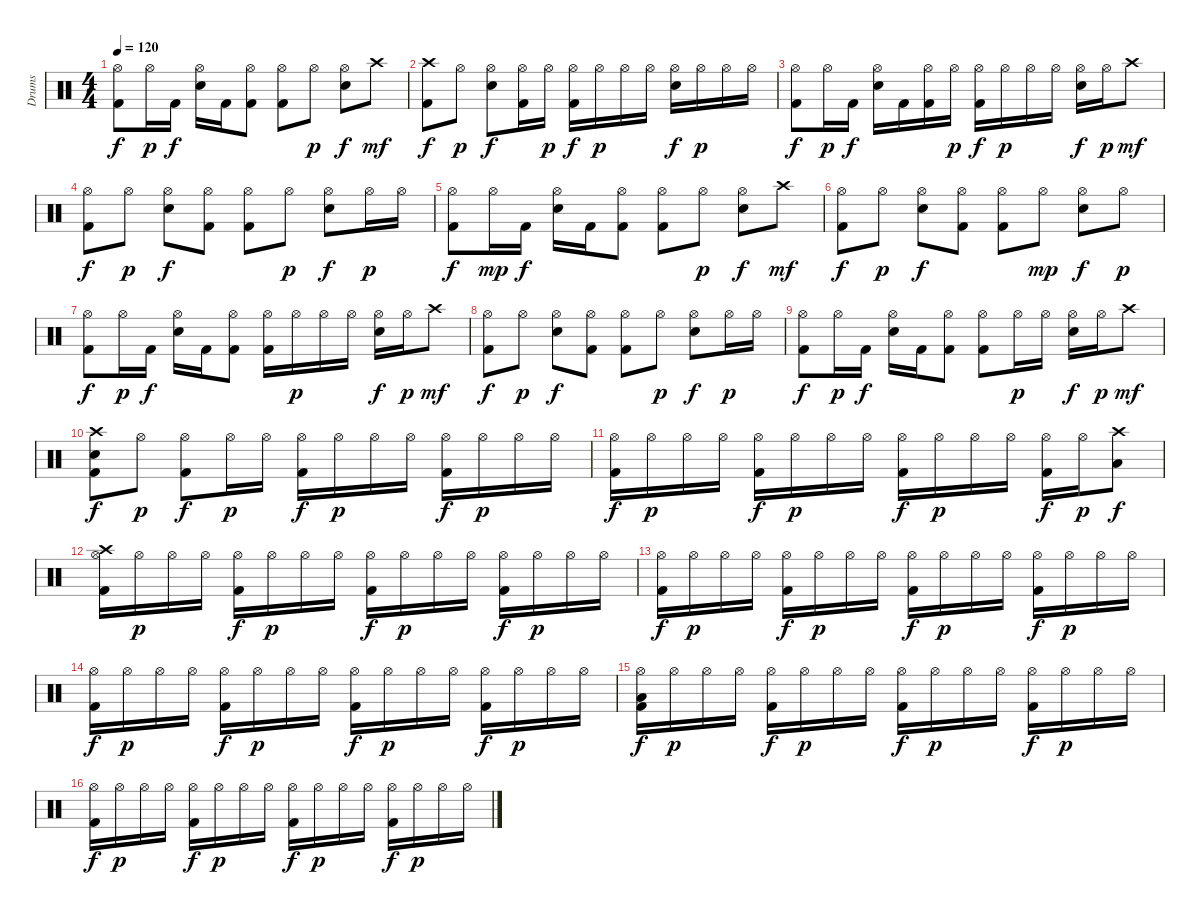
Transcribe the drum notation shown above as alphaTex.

\track ("Drums" "Drums") {instrument percussion}
\staff {score}
\articulation defaults
\ts (4 4)
\tempo 120
\clef neutral
\ks c
("Hi-Hat (open)" "Kick (hit) 2").8{dy f} "Hi-Hat (open)".16{dy p} "Kick (hit) 2".16{dy f} ("Hi-Hat (open)" "Electric Snare (hit)").16 "Kick (hit) 2".16 ("Hi-Hat (open)" "Kick (hit) 2").8 ("Hi-Hat (open)" "Kick (hit) 2").8 "Hi-Hat (open)".8{dy p} ("Hi-Hat (open)" "Electric Snare (hit)").8{dy f} "Crash high (hit)".8{dy mf} |
("Crash high (hit)" "Kick (hit) 2").8{dy f} "Hi-Hat (open)".8{dy p} ("Hi-Hat (open)" "Electric Snare (hit)").8{dy f} ("Hi-Hat (open)" "Kick (hit) 2").16 "Hi-Hat (open)".16{dy p} ("Hi-Hat (open)" "Kick (hit) 2").16{dy f} "Hi-Hat (open)".16{dy p} "Hi-Hat (open)".16 "Hi-Hat (open)".16 ("Hi-Hat (open)" "Electric Snare (hit)").16{dy f} "Hi-Hat (open)".16{dy p} "Hi-Hat (open)".16 "Hi-Hat (open)".16 |
("Hi-Hat (open)" "Kick (hit) 2").8{dy f} "Hi-Hat (open)".16{dy p} "Kick (hit) 2".16{dy f} ("Hi-Hat (open)" "Electric Snare (hit)").16 "Kick (hit) 2".16 ("Hi-Hat (open)" "Kick (hit) 2").16 "Hi-Hat (open)".16{dy p} ("Hi-Hat (open)" "Kick (hit) 2").16{dy f} "Hi-Hat (open)".16{dy p} "Hi-Hat (open)".16 "Hi-Hat (open)".16 ("Hi-Hat (open)" "Electric Snare (hit)").16{dy f} "Hi-Hat (open)".16{dy p} "Crash high (hit)".8{dy mf} |
("Hi-Hat (open)" "Kick (hit) 2").8{dy f} "Hi-Hat (open)".8{dy p} ("Hi-Hat (open)" "Electric Snare (hit)").8{dy f} ("Hi-Hat (open)" "Kick (hit) 2").8 ("Hi-Hat (open)" "Kick (hit) 2").8 "Hi-Hat (open)".8{dy p} ("Hi-Hat (open)" "Electric Snare (hit)").8{dy f} "Hi-Hat (open)".16{dy p} "Hi-Hat (open)".16 |
("Hi-Hat (open)" "Kick (hit) 2").8{dy f} "Hi-Hat (open)".16{dy mp} "Kick (hit) 2".16{dy f} ("Hi-Hat (open)" "Electric Snare (hit)").16 "Kick (hit) 2".16 ("Hi-Hat (open)" "Kick (hit) 2").8 ("Hi-Hat (open)" "Kick (hit) 2").8 "Hi-Hat (open)".8{dy p} ("Hi-Hat (open)" "Electric Snare (hit)").8{dy f} "Crash high (hit)".8{dy mf} |
("Hi-Hat (open)" "Kick (hit) 2").8{dy f} "Hi-Hat (open)".8{dy p} ("Hi-Hat (open)" "Electric Snare (hit)").8{dy f} ("Hi-Hat (open)" "Kick (hit) 2").8 ("Hi-Hat (open)" "Kick (hit) 2").8 "Hi-Hat (open)".8{dy mp} ("Hi-Hat (open)" "Electric Snare (hit)").8{dy f} "Hi-Hat (open)".8{dy p} |
("Hi-Hat (open)" "Kick (hit) 2").8{dy f} "Hi-Hat (open)".16{dy p} "Kick (hit) 2".16{dy f} ("Hi-Hat (open)" "Electric Snare (hit)").16 "Kick (hit) 2".16 ("Hi-Hat (open)" "Kick (hit) 2").8 ("Hi-Hat (open)" "Kick (hit) 2").16 "Hi-Hat (open)".16{dy p} "Hi-Hat (open)".16 "Hi-Hat (open)".16 ("Hi-Hat (open)" "Electric Snare (hit)").16{dy f} "Hi-Hat (open)".16{dy p} "Crash high (hit)".8{dy mf} |
("Hi-Hat (open)" "Kick (hit) 2").8{dy f} "Hi-Hat (open)".8{dy p} ("Hi-Hat (open)" "Electric Snare (hit)").8{dy f} ("Hi-Hat (open)" "Kick (hit) 2").8 ("Hi-Hat (open)" "Kick (hit) 2").8 "Hi-Hat (open)".8{dy p} ("Hi-Hat (open)" "Electric Snare (hit)").8{dy f} "Hi-Hat (open)".16{dy p} "Hi-Hat (open)".16 |
("Hi-Hat (open)" "Kick (hit) 2").8{dy f} "Hi-Hat (open)".16{dy p} "Kick (hit) 2".16{dy f} ("Hi-Hat (open)" "Electric Snare (hit)").16 "Kick (hit) 2".16 ("Hi-Hat (open)" "Kick (hit) 2").8 ("Hi-Hat (open)" "Kick (hit) 2").8 "Hi-Hat (open)".16{dy p} "Hi-Hat (open)".16 ("Hi-Hat (open)" "Electric Snare (hit)").16{dy f} "Hi-Hat (open)".16{dy p} "Crash high (hit)".8{dy mf} |
("Crash high (hit)" "Electric Snare (hit)" "Kick (hit) 2").8{dy f} "Hi-Hat (open)".8{dy p} ("Hi-Hat (open)" "Kick (hit) 2").8{dy f} "Hi-Hat (open)".16{dy p} "Hi-Hat (open)".16 ("Hi-Hat (open)" "Kick (hit) 2").16{dy f} "Hi-Hat (open)".16{dy p} "Hi-Hat (open)".16 "Hi-Hat (open)".16 ("Hi-Hat (open)" "Kick (hit) 2").16{dy f} "Hi-Hat (open)".16{dy p} "Hi-Hat (open)".16 "Hi-Hat (open)".16 |
("Hi-Hat (open)" "Kick (hit) 2").16{dy f} "Hi-Hat (open)".16{dy p} "Hi-Hat (open)".16 "Hi-Hat (open)".16 ("Hi-Hat (open)" "Kick (hit) 2").16{dy f} "Hi-Hat (open)".16{dy p} "Hi-Hat (open)".16 "Hi-Hat (open)".16 ("Hi-Hat (open)" "Kick (hit) 2").16{dy f} "Hi-Hat (open)".16{dy p} "Hi-Hat (open)".16 "Hi-Hat (open)".16 ("Hi-Hat (open)" "Kick (hit) 2").16{dy f} "Hi-Hat (open)".16{dy p} ("Crash high (hit)" "Low Tom (hit)").8{dy f} |
("Hi-Hat (open)" "Crash high (hit)" "Kick (hit) 2").16 "Hi-Hat (open)".16{dy p} "Hi-Hat (open)".16 "Hi-Hat (open)".16 ("Hi-Hat (open)" "Kick (hit) 2").16{dy f} "Hi-Hat (open)".16{dy p} "Hi-Hat (open)".16 "Hi-Hat (open)".16 ("Hi-Hat (open)" "Kick (hit) 2").16{dy f} "Hi-Hat (open)".16{dy p} "Hi-Hat (open)".16 "Hi-Hat (open)".16 ("Hi-Hat (open)" "Kick (hit) 2").16{dy f} "Hi-Hat (open)".16{dy p} "Hi-Hat (open)".16 "Hi-Hat (open)".16 |
("Hi-Hat (open)" "Kick (hit) 2").16{dy f} "Hi-Hat (open)".16{dy p} "Hi-Hat (open)".16 "Hi-Hat (open)".16 ("Hi-Hat (open)" "Kick (hit) 2").16{dy f} "Hi-Hat (open)".16{dy p} "Hi-Hat (open)".16 "Hi-Hat (open)".16 ("Hi-Hat (open)" "Kick (hit) 2").16{dy f} "Hi-Hat (open)".16{dy p} "Hi-Hat (open)".16 "Hi-Hat (open)".16 ("Hi-Hat (open)" "Kick (hit) 2").16{dy f} "Hi-Hat (open)".16{dy p} "Hi-Hat (open)".16 "Hi-Hat (open)".16 |
("Hi-Hat (open)" "Kick (hit) 2").16{dy f} "Hi-Hat (open)".16{dy p} "Hi-Hat (open)".16 "Hi-Hat (open)".16 ("Hi-Hat (open)" "Kick (hit) 2").16{dy f} "Hi-Hat (open)".16{dy p} "Hi-Hat (open)".16 "Hi-Hat (open)".16 ("Hi-Hat (open)" "Kick (hit) 2").16{dy f} "Hi-Hat (open)".16{dy p} "Hi-Hat (open)".16 "Hi-Hat (open)".16 ("Hi-Hat (open)" "Kick (hit) 2").16{dy f} "Hi-Hat (open)".16{dy p} "Hi-Hat (open)".16 "Hi-Hat (open)".16 |
("Hi-Hat (open)" "Low Tom (hit)" "Kick (hit) 2").16{dy f} "Hi-Hat (open)".16{dy p} "Hi-Hat (open)".16 "Hi-Hat (open)".16 ("Hi-Hat (open)" "Kick (hit) 2").16{dy f} "Hi-Hat (open)".16{dy p} "Hi-Hat (open)".16 "Hi-Hat (open)".16 ("Hi-Hat (open)" "Kick (hit) 2").16{dy f} "Hi-Hat (open)".16{dy p} "Hi-Hat (open)".16 "Hi-Hat (open)".16 ("Hi-Hat (open)" "Kick (hit) 2").16{dy f} "Hi-Hat (open)".16{dy p} "Hi-Hat (open)".16 "Hi-Hat (open)".16 |
("Hi-Hat (open)" "Kick (hit) 2").16{dy f} "Hi-Hat (open)".16{dy p} "Hi-Hat (open)".16 "Hi-Hat (open)".16 ("Hi-Hat (open)" "Kick (hit) 2").16{dy f} "Hi-Hat (open)".16{dy p} "Hi-Hat (open)".16 "Hi-Hat (open)".16 ("Hi-Hat (open)" "Kick (hit) 2").16{dy f} "Hi-Hat (open)".16{dy p} "Hi-Hat (open)".16 "Hi-Hat (open)".16 ("Hi-Hat (open)" "Kick (hit) 2").16{dy f} "Hi-Hat (open)".16{dy p} "Hi-Hat (open)".16 "Hi-Hat (open)".16
